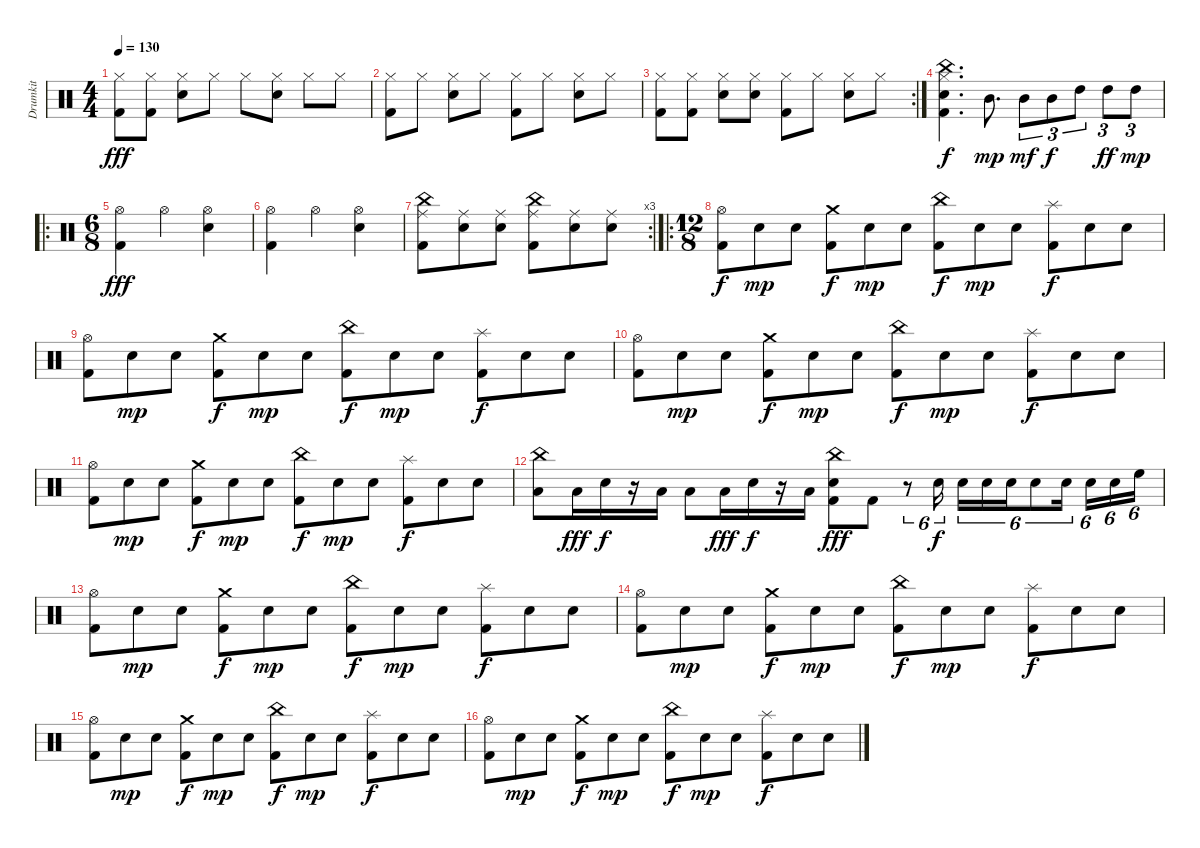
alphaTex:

\track ("Drumkit" "Drumkit") {instrument percussion}
\staff {score}
\articulation defaults
\ts (4 4)
\tempo 130
\clef neutral
\ks c
("Kick (hit) 2" "Hi-Hat (closed)").8{dy fff} ("Kick (hit) 2" "Hi-Hat (closed)").8 ("Snare (hit) 2" "Hi-Hat (closed)").8 "Hi-Hat (closed)".8 "Hi-Hat (closed)".8 ("Snare (hit) 2" "Hi-Hat (closed)").8 "Hi-Hat (closed)".8 "Hi-Hat (closed)".8 |
("Kick (hit) 2" "Hi-Hat (closed)").8 "Hi-Hat (closed)".8 ("Snare (hit) 2" "Hi-Hat (closed)").8 "Hi-Hat (closed)".8 ("Kick (hit) 2" "Hi-Hat (closed)").8 "Hi-Hat (closed)".8 ("Snare (hit) 2" "Hi-Hat (closed)").8 "Hi-Hat (closed)".8 |
\rc 2
("Kick (hit) 2" "Hi-Hat (closed)").8 ("Kick (hit) 2" "Hi-Hat (closed)").8 ("Snare (hit) 2" "Hi-Hat (closed)").8 ("Snare (hit) 2" "Hi-Hat (closed)").8 ("Kick (hit) 2" "Hi-Hat (closed)").8 "Hi-Hat (closed)".8 ("Snare (hit) 2" "Hi-Hat (closed)").8 "Hi-Hat (closed)".8 |
("Kick (hit) 2" "Snare (hit) 2" "Hi-Hat (closed)" "China (hit)").4{d dy f} "Mid Tom (hit)".8{d dy mp} "Mid Tom (hit)".8{tu (3 2) dy mf} "Mid Tom (hit)".8{tu (3 2) dy f} "High Tom (hit)".8{tu (3 2)} "High Tom (hit)".8{tu (3 2) dy ff} "High Tom (hit)".8{tu (3 2) dy mp} |
\ro
\ts (6 8)
("Kick (hit) 2" "Hi-Hat (open)").4{dy fff} "Hi-Hat (open)".4 ("Snare (hit) 2" "Hi-Hat (open)").4 |
("Kick (hit) 2" "Hi-Hat (open)").4 "Hi-Hat (open)".4 ("Snare (hit) 2" "Hi-Hat (open)").4 |
\rc 3
("Kick (hit) 2" "China (hit)" "Ride (middle)").8 ("Snare (hit) 2" "Ride (middle)").8 ("Snare (hit) 2" "Ride (middle)").8 ("Kick (hit) 2" "China (hit)" "Ride (middle)").8 ("Snare (hit) 2" "Ride (middle)").8 ("Snare (hit) 2" "Ride (middle)").8 |
\ro
\ts (12 8)
("Kick (hit) 2" "Hi-Hat (open)").8{dy f} "Snare (hit) 2".8{dy mp} "Snare (hit) 2".8 ("Kick (hit) 2" "Crash medium (hit)").8{dy f} "Snare (hit) 2".8{dy mp} "Snare (hit) 2".8 ("Kick (hit) 2" "China (hit)").8{dy f} "Snare (hit) 2".8{dy mp} "Snare (hit) 2".8 ("Kick (hit) 2" "Splash (hit)").8{dy f} "Snare (hit) 2".8 "Snare (hit) 2".8 |
("Kick (hit) 2" "Hi-Hat (open)").8 "Snare (hit) 2".8{dy mp} "Snare (hit) 2".8 ("Kick (hit) 2" "Crash medium (hit)").8{dy f} "Snare (hit) 2".8{dy mp} "Snare (hit) 2".8 ("Kick (hit) 2" "China (hit)").8{dy f} "Snare (hit) 2".8{dy mp} "Snare (hit) 2".8 ("Kick (hit) 2" "Splash (hit)").8{dy f} "Snare (hit) 2".8 "Snare (hit) 2".8 |
("Kick (hit) 2" "Hi-Hat (open)").8 "Snare (hit) 2".8{dy mp} "Snare (hit) 2".8 ("Kick (hit) 2" "Crash medium (hit)").8{dy f} "Snare (hit) 2".8{dy mp} "Snare (hit) 2".8 ("Kick (hit) 2" "China (hit)").8{dy f} "Snare (hit) 2".8{dy mp} "Snare (hit) 2".8 ("Kick (hit) 2" "Splash (hit)").8{dy f} "Snare (hit) 2".8 "Snare (hit) 2".8 |
("Kick (hit) 2" "Hi-Hat (open)").8 "Snare (hit) 2".8{dy mp} "Snare (hit) 2".8 ("Kick (hit) 2" "Crash medium (hit)").8{dy f} "Snare (hit) 2".8{dy mp} "Snare (hit) 2".8 ("Kick (hit) 2" "China (hit)").8{dy f} "Snare (hit) 2".8{dy mp} "Snare (hit) 2".8 ("Kick (hit) 2" "Splash (hit)").8{dy f} "Snare (hit) 2".8 "Snare (hit) 2".8 |
("Low Floor Tom (hit)" "China (hit)").8 "Low Floor Tom (hit)".16{dy fff} "Snare (hit) 2".16{dy f} r.16 "Low Floor Tom (hit)".16 "Low Floor Tom (hit)".8 "Low Floor Tom (hit)".16{dy fff} "Snare (hit) 2".16{dy f} r.16 "Low Floor Tom (hit)".16 ("Kick (hit) 2" "Snare (hit) 2" "China (hit)").8{dy fff} "Kick (hit) 2".8 r.8{tu (6 4)} "Snare (hit) 2".16{tu (6 4) dy f} "Snare (hit) 2".16{tu (6 4)} "Snare (hit) 2".16{tu (6 4)} "Snare (hit) 2".16{tu (6 4)} "Snare (hit) 2".8{tu (6 4)} "Snare (hit) 2".16{tu (6 4) beam splitsecondary} "Snare (hit) 2".16{tu (6 4)} "Snare (hit) 2".16{tu (6 4)} "High Floor Tom (hit)".16{tu (6 4)} |
("Kick (hit) 2" "Hi-Hat (open)").8 "Snare (hit) 2".8{dy mp} "Snare (hit) 2".8 ("Kick (hit) 2" "Crash medium (hit)").8{dy f} "Snare (hit) 2".8{dy mp} "Snare (hit) 2".8 ("Kick (hit) 2" "China (hit)").8{dy f} "Snare (hit) 2".8{dy mp} "Snare (hit) 2".8 ("Kick (hit) 2" "Splash (hit)").8{dy f} "Snare (hit) 2".8 "Snare (hit) 2".8 |
("Kick (hit) 2" "Hi-Hat (open)").8 "Snare (hit) 2".8{dy mp} "Snare (hit) 2".8 ("Kick (hit) 2" "Crash medium (hit)").8{dy f} "Snare (hit) 2".8{dy mp} "Snare (hit) 2".8 ("Kick (hit) 2" "China (hit)").8{dy f} "Snare (hit) 2".8{dy mp} "Snare (hit) 2".8 ("Kick (hit) 2" "Splash (hit)").8{dy f} "Snare (hit) 2".8 "Snare (hit) 2".8 |
("Kick (hit) 2" "Hi-Hat (open)").8 "Snare (hit) 2".8{dy mp} "Snare (hit) 2".8 ("Kick (hit) 2" "Crash medium (hit)").8{dy f} "Snare (hit) 2".8{dy mp} "Snare (hit) 2".8 ("Kick (hit) 2" "China (hit)").8{dy f} "Snare (hit) 2".8{dy mp} "Snare (hit) 2".8 ("Kick (hit) 2" "Splash (hit)").8{dy f} "Snare (hit) 2".8 "Snare (hit) 2".8 |
("Kick (hit) 2" "Hi-Hat (open)").8 "Snare (hit) 2".8{dy mp} "Snare (hit) 2".8 ("Kick (hit) 2" "Crash medium (hit)").8{dy f} "Snare (hit) 2".8{dy mp} "Snare (hit) 2".8 ("Kick (hit) 2" "China (hit)").8{dy f} "Snare (hit) 2".8{dy mp} "Snare (hit) 2".8 ("Kick (hit) 2" "Splash (hit)").8{dy f} "Snare (hit) 2".8 "Snare (hit) 2".8
